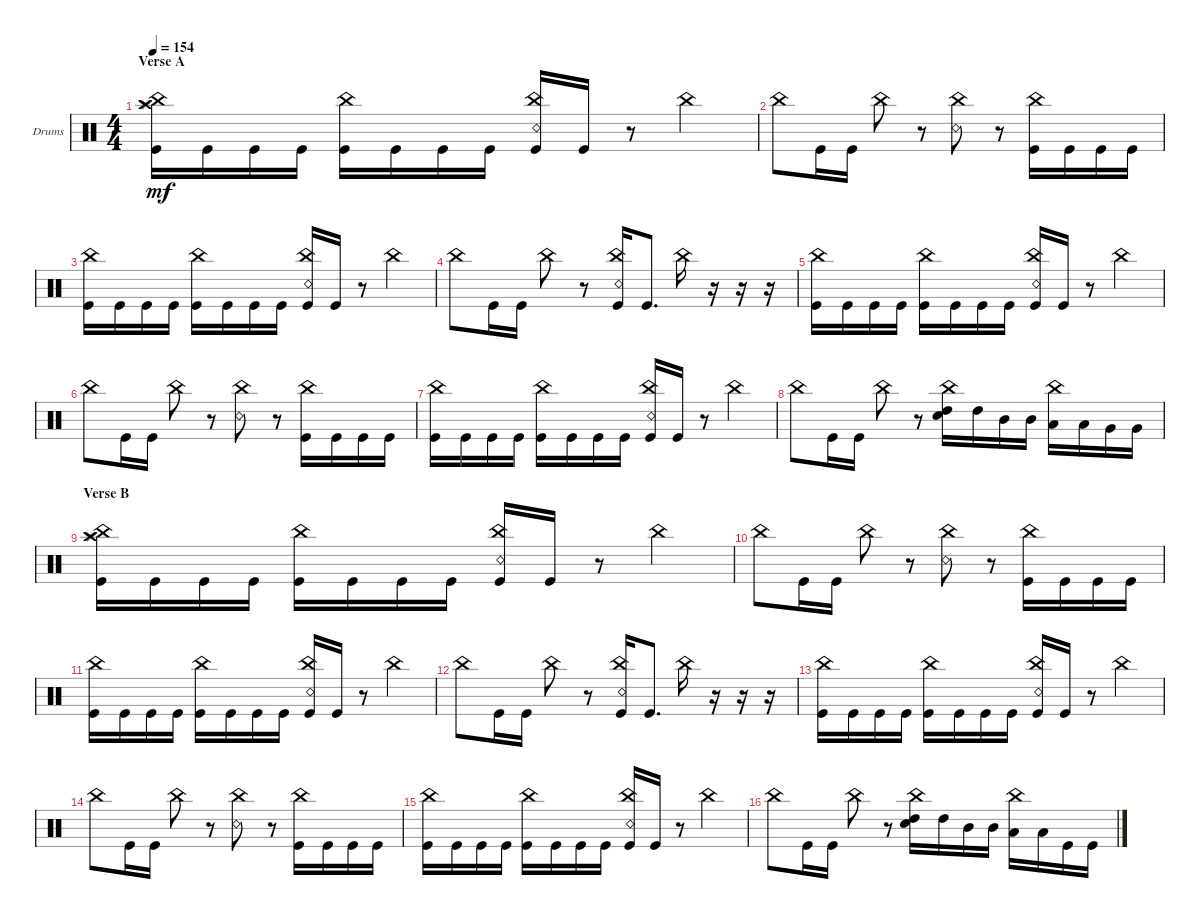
\defaultSystemsLayout 4
\bracketExtendMode groupsimilarinstruments
\firstSystemTrackNameOrientation horizontal
\otherSystemsTrackNameOrientation horizontal
\track ("Drums" "Drums") {instrument percussion}
\staff {score}
\articulation defaults
\ts (4 4)
\section ("" "Verse A")
\tempo 154
\clef neutral
\ks c
("Kick (hit)" "Splash (hit)" "China (hit)" "Crash high (hit)").16{dy mf} "Kick (hit)".16 "Kick (hit)".16 "Kick (hit)".16 ("Kick (hit)" "China (hit)").16 "Kick (hit)".16 "Kick (hit)".16 "Kick (hit)".16 ("Kick (hit)" "Snare (rim shot)" "China (hit)").16 "Kick (hit)".16 r.8 "China (hit)".4 |
"China (hit)".8 "Kick (hit)".16 "Kick (hit)".16 "China (hit)".8 r.8 ("Snare (rim shot)" "China (hit)").8 r.8 ("Kick (hit)" "China (hit)").16 "Kick (hit)".16 "Kick (hit)".16 "Kick (hit)".16 |
("Kick (hit)" "China (hit)").16 "Kick (hit)".16 "Kick (hit)".16 "Kick (hit)".16 ("Kick (hit)" "China (hit)").16 "Kick (hit)".16 "Kick (hit)".16 "Kick (hit)".16 ("Kick (hit)" "Snare (rim shot)" "China (hit)").16 "Kick (hit)".16 r.8 "China (hit)".4 |
"China (hit)".8 "Kick (hit)".16 "Kick (hit)".16 "China (hit)".8 r.8 ("Snare (rim shot)" "China (hit)" "Kick (hit)").16 "Kick (hit)".8{d} "China (hit)".16 r.16 r.16 r.16 |
("Kick (hit)" "China (hit)").16 "Kick (hit)".16 "Kick (hit)".16 "Kick (hit)".16 ("Kick (hit)" "China (hit)").16 "Kick (hit)".16 "Kick (hit)".16 "Kick (hit)".16 ("Kick (hit)" "Snare (rim shot)" "China (hit)").16 "Kick (hit)".16 r.8 "China (hit)".4 |
"China (hit)".8 "Kick (hit)".16 "Kick (hit)".16 "China (hit)".8 r.8 ("Snare (rim shot)" "China (hit)").8 r.8 ("Kick (hit)" "China (hit)").16 "Kick (hit)".16 "Kick (hit)".16 "Kick (hit)".16 |
("Kick (hit)" "China (hit)").16 "Kick (hit)".16 "Kick (hit)".16 "Kick (hit)".16 ("Kick (hit)" "China (hit)").16 "Kick (hit)".16 "Kick (hit)".16 "Kick (hit)".16 ("Kick (hit)" "Snare (rim shot)" "China (hit)").16 "Kick (hit)".16 r.8 "China (hit)".4 |
"China (hit)".8 "Kick (hit)".16 "Kick (hit)".16 "China (hit)".8 r.8 ("High Tom (hit)" "Snare (hit) 2" "China (hit)").16 "High Tom (hit)".16 "Mid Tom (hit)".16 "Mid Tom (hit)".16 ("Low Tom (hit)" "China (hit)").16 "Low Tom (hit)".16 "Very Low Tom (hit)".16 "Very Low Tom (hit)".16 |
\section ("" "Verse B")
("Kick (hit)" "Splash (hit)" "China (hit)" "Crash high (hit)").16 "Kick (hit)".16 "Kick (hit)".16 "Kick (hit)".16 ("Kick (hit)" "China (hit)").16 "Kick (hit)".16 "Kick (hit)".16 "Kick (hit)".16 ("Kick (hit)" "Snare (rim shot)" "China (hit)").16 "Kick (hit)".16 r.8 "China (hit)".4 |
"China (hit)".8 "Kick (hit)".16 "Kick (hit)".16 "China (hit)".8 r.8 ("Snare (rim shot)" "China (hit)").8 r.8 ("Kick (hit)" "China (hit)").16 "Kick (hit)".16 "Kick (hit)".16 "Kick (hit)".16 |
("Kick (hit)" "China (hit)").16 "Kick (hit)".16 "Kick (hit)".16 "Kick (hit)".16 ("Kick (hit)" "China (hit)").16 "Kick (hit)".16 "Kick (hit)".16 "Kick (hit)".16 ("Kick (hit)" "Snare (rim shot)" "China (hit)").16 "Kick (hit)".16 r.8 "China (hit)".4 |
"China (hit)".8 "Kick (hit)".16 "Kick (hit)".16 "China (hit)".8 r.8 ("Snare (rim shot)" "China (hit)" "Kick (hit)").16 "Kick (hit)".8{d} "China (hit)".16 r.16 r.16 r.16 |
("Kick (hit)" "China (hit)").16 "Kick (hit)".16 "Kick (hit)".16 "Kick (hit)".16 ("Kick (hit)" "China (hit)").16 "Kick (hit)".16 "Kick (hit)".16 "Kick (hit)".16 ("Kick (hit)" "Snare (rim shot)" "China (hit)").16 "Kick (hit)".16 r.8 "China (hit)".4 |
"China (hit)".8 "Kick (hit)".16 "Kick (hit)".16 "China (hit)".8 r.8 ("Snare (rim shot)" "China (hit)").8 r.8 ("Kick (hit)" "China (hit)").16 "Kick (hit)".16 "Kick (hit)".16 "Kick (hit)".16 |
("Kick (hit)" "China (hit)").16 "Kick (hit)".16 "Kick (hit)".16 "Kick (hit)".16 ("Kick (hit)" "China (hit)").16 "Kick (hit)".16 "Kick (hit)".16 "Kick (hit)".16 ("Kick (hit)" "Snare (rim shot)" "China (hit)").16 "Kick (hit)".16 r.8 "China (hit)".4 |
"China (hit)".8 "Kick (hit)".16 "Kick (hit)".16 "China (hit)".8 r.8 ("High Tom (hit)" "Snare (hit) 2" "China (hit)").16 "High Tom (hit)".16 "Mid Tom (hit)".16 "Mid Tom (hit)".16 ("Low Tom (hit)" "China (hit)").16 "Low Tom (hit)".16 "Kick (hit)".16 "Kick (hit)".16
